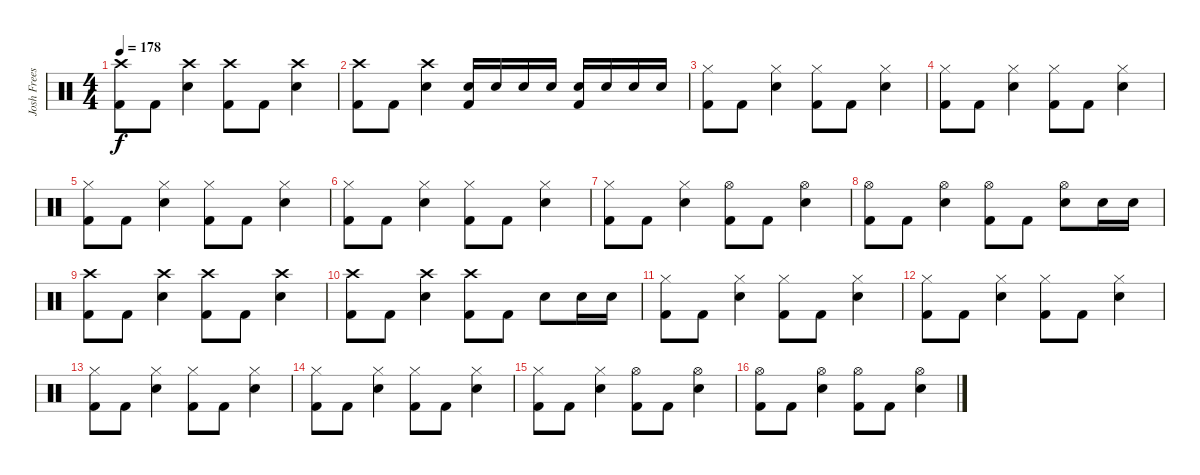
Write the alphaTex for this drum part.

\track ("Josh Freese" "Josh Frees") {instrument percussion}
\staff {score}
\articulation defaults
\ts (4 4)
\tempo 178
\clef neutral
\ks c
("Crash high (hit)" "Kick (hit) 2").8{dy f} "Kick (hit) 2".8 ("Crash high (hit)" "Electric Snare (hit)").4 ("Crash high (hit)" "Kick (hit) 2").8 "Kick (hit) 2".8 ("Crash high (hit)" "Electric Snare (hit)").4 |
("Crash high (hit)" "Kick (hit) 2").8 "Kick (hit) 2".8 ("Crash high (hit)" "Electric Snare (hit)").4 ("Electric Snare (hit)" "Kick (hit) 2").16 "Electric Snare (hit)".16 "Electric Snare (hit)".16 "Electric Snare (hit)".16 ("Electric Snare (hit)" "Kick (hit) 2").16 "Electric Snare (hit)".16 "Electric Snare (hit)".16 "Electric Snare (hit)".16 |
("Hi-Hat (closed)" "Kick (hit) 2").8 "Kick (hit) 2".8 ("Hi-Hat (closed)" "Electric Snare (hit)").4 ("Hi-Hat (closed)" "Kick (hit) 2").8 "Kick (hit) 2".8 ("Hi-Hat (closed)" "Electric Snare (hit)").4 |
("Hi-Hat (closed)" "Kick (hit) 2").8 "Kick (hit) 2".8 ("Hi-Hat (closed)" "Electric Snare (hit)").4 ("Hi-Hat (closed)" "Kick (hit) 2").8 "Kick (hit) 2".8 ("Hi-Hat (closed)" "Electric Snare (hit)").4 |
("Hi-Hat (closed)" "Kick (hit) 2").8 "Kick (hit) 2".8 ("Hi-Hat (closed)" "Electric Snare (hit)").4 ("Hi-Hat (closed)" "Kick (hit) 2").8 "Kick (hit) 2".8 ("Hi-Hat (closed)" "Electric Snare (hit)").4 |
("Hi-Hat (closed)" "Kick (hit) 2").8 "Kick (hit) 2".8 ("Hi-Hat (closed)" "Electric Snare (hit)").4 ("Hi-Hat (closed)" "Kick (hit) 2").8 "Kick (hit) 2".8 ("Hi-Hat (closed)" "Electric Snare (hit)").4 |
("Hi-Hat (closed)" "Kick (hit) 2").8 "Kick (hit) 2".8 ("Hi-Hat (closed)" "Electric Snare (hit)").4 ("Hi-Hat (open)" "Kick (hit) 2").8 "Kick (hit) 2".8 ("Hi-Hat (open)" "Electric Snare (hit)").4 |
("Hi-Hat (open)" "Kick (hit) 2").8 "Kick (hit) 2".8 ("Hi-Hat (open)" "Electric Snare (hit)").4 ("Hi-Hat (open)" "Kick (hit) 2").8 "Kick (hit) 2".8 ("Hi-Hat (open)" "Electric Snare (hit)").8 "Electric Snare (hit)".16 "Electric Snare (hit)".16 |
("Crash high (hit)" "Kick (hit) 2").8 "Kick (hit) 2".8 ("Crash high (hit)" "Electric Snare (hit)").4 ("Crash high (hit)" "Kick (hit) 2").8 "Kick (hit) 2".8 ("Crash high (hit)" "Electric Snare (hit)").4 |
("Crash high (hit)" "Kick (hit) 2").8 "Kick (hit) 2".8 ("Crash high (hit)" "Electric Snare (hit)").4 ("Crash high (hit)" "Kick (hit) 2").8 "Kick (hit) 2".8 "Electric Snare (hit)".8 "Electric Snare (hit)".16 "Electric Snare (hit)".16 |
("Hi-Hat (closed)" "Kick (hit) 2").8 "Kick (hit) 2".8 ("Hi-Hat (closed)" "Electric Snare (hit)").4 ("Hi-Hat (closed)" "Kick (hit) 2").8 "Kick (hit) 2".8 ("Hi-Hat (closed)" "Electric Snare (hit)").4 |
("Hi-Hat (closed)" "Kick (hit) 2").8 "Kick (hit) 2".8 ("Hi-Hat (closed)" "Electric Snare (hit)").4 ("Hi-Hat (closed)" "Kick (hit) 2").8 "Kick (hit) 2".8 ("Hi-Hat (closed)" "Electric Snare (hit)").4 |
("Hi-Hat (closed)" "Kick (hit) 2").8 "Kick (hit) 2".8 ("Hi-Hat (closed)" "Electric Snare (hit)").4 ("Hi-Hat (closed)" "Kick (hit) 2").8 "Kick (hit) 2".8 ("Hi-Hat (closed)" "Electric Snare (hit)").4 |
("Hi-Hat (closed)" "Kick (hit) 2").8 "Kick (hit) 2".8 ("Hi-Hat (closed)" "Electric Snare (hit)").4 ("Hi-Hat (closed)" "Kick (hit) 2").8 "Kick (hit) 2".8 ("Hi-Hat (closed)" "Electric Snare (hit)").4 |
("Hi-Hat (closed)" "Kick (hit) 2").8 "Kick (hit) 2".8 ("Hi-Hat (closed)" "Electric Snare (hit)").4 ("Hi-Hat (open)" "Kick (hit) 2").8 "Kick (hit) 2".8 ("Hi-Hat (open)" "Electric Snare (hit)").4 |
("Hi-Hat (open)" "Kick (hit) 2").8 "Kick (hit) 2".8 ("Hi-Hat (open)" "Electric Snare (hit)").4 ("Hi-Hat (open)" "Kick (hit) 2").8 "Kick (hit) 2".8 ("Hi-Hat (open)" "Electric Snare (hit)").4
